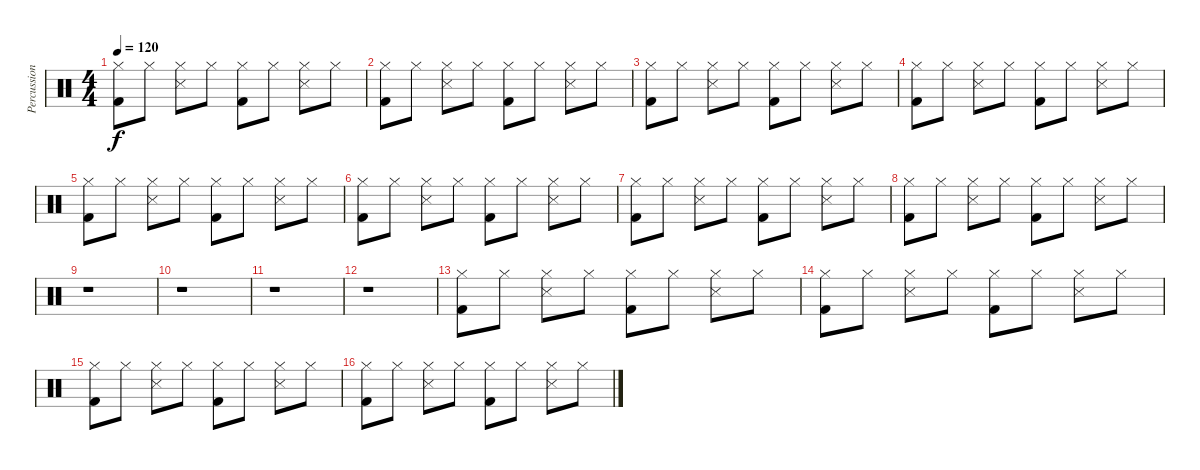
\track ("Percussions" "Percussion") {instrument percussion}
\staff {score}
\articulation defaults
\ts (4 4)
\tempo 120
\clef neutral
\ks c
("Kick (hit) 2" "Hi-Hat (closed)").8{dy f} "Hi-Hat (closed)".8 ("Snare (side stick) 3" "Hi-Hat (closed)").8 "Hi-Hat (closed)".8 ("Kick (hit) 2" "Hi-Hat (closed)").8 "Hi-Hat (closed)".8 ("Snare (side stick) 3" "Hi-Hat (closed)").8 "Hi-Hat (closed)".8 |
("Kick (hit) 2" "Hi-Hat (closed)").8 "Hi-Hat (closed)".8 ("Snare (side stick) 3" "Hi-Hat (closed)").8 "Hi-Hat (closed)".8 ("Kick (hit) 2" "Hi-Hat (closed)").8 "Hi-Hat (closed)".8 ("Snare (side stick) 3" "Hi-Hat (closed)").8 "Hi-Hat (closed)".8 |
("Kick (hit) 2" "Hi-Hat (closed)").8 "Hi-Hat (closed)".8 ("Snare (side stick) 3" "Hi-Hat (closed)").8 "Hi-Hat (closed)".8 ("Kick (hit) 2" "Hi-Hat (closed)").8 "Hi-Hat (closed)".8 ("Snare (side stick) 3" "Hi-Hat (closed)").8 "Hi-Hat (closed)".8 |
("Kick (hit) 2" "Hi-Hat (closed)").8 "Hi-Hat (closed)".8 ("Snare (side stick) 3" "Hi-Hat (closed)").8 "Hi-Hat (closed)".8 ("Kick (hit) 2" "Hi-Hat (closed)").8 "Hi-Hat (closed)".8 ("Snare (side stick) 3" "Hi-Hat (closed)").8 "Hi-Hat (closed)".8 |
("Kick (hit) 2" "Hi-Hat (closed)").8 "Hi-Hat (closed)".8 ("Snare (side stick) 3" "Hi-Hat (closed)").8 "Hi-Hat (closed)".8 ("Kick (hit) 2" "Hi-Hat (closed)").8 "Hi-Hat (closed)".8 ("Snare (side stick) 3" "Hi-Hat (closed)").8 "Hi-Hat (closed)".8 |
("Kick (hit) 2" "Hi-Hat (closed)").8 "Hi-Hat (closed)".8 ("Snare (side stick) 3" "Hi-Hat (closed)").8 "Hi-Hat (closed)".8 ("Kick (hit) 2" "Hi-Hat (closed)").8 "Hi-Hat (closed)".8 ("Snare (side stick) 3" "Hi-Hat (closed)").8 "Hi-Hat (closed)".8 |
("Kick (hit) 2" "Hi-Hat (closed)").8 "Hi-Hat (closed)".8 ("Snare (side stick) 3" "Hi-Hat (closed)").8 "Hi-Hat (closed)".8 ("Kick (hit) 2" "Hi-Hat (closed)").8 "Hi-Hat (closed)".8 ("Snare (side stick) 3" "Hi-Hat (closed)").8 "Hi-Hat (closed)".8 |
("Kick (hit) 2" "Hi-Hat (closed)").8 "Hi-Hat (closed)".8 ("Snare (side stick) 3" "Hi-Hat (closed)").8 "Hi-Hat (closed)".8 ("Kick (hit) 2" "Hi-Hat (closed)").8 "Hi-Hat (closed)".8 ("Snare (side stick) 3" "Hi-Hat (closed)").8 "Hi-Hat (closed)".8 |
r.1 |
r.1 |
r.1 |
r.1 |
("Kick (hit) 2" "Hi-Hat (closed)").8 "Hi-Hat (closed)".8 ("Snare (side stick) 3" "Hi-Hat (closed)").8 "Hi-Hat (closed)".8 ("Kick (hit) 2" "Hi-Hat (closed)").8 "Hi-Hat (closed)".8 ("Snare (side stick) 3" "Hi-Hat (closed)").8 "Hi-Hat (closed)".8 |
("Kick (hit) 2" "Hi-Hat (closed)").8 "Hi-Hat (closed)".8 ("Snare (side stick) 3" "Hi-Hat (closed)").8 "Hi-Hat (closed)".8 ("Kick (hit) 2" "Hi-Hat (closed)").8 "Hi-Hat (closed)".8 ("Snare (side stick) 3" "Hi-Hat (closed)").8 "Hi-Hat (closed)".8 |
("Kick (hit) 2" "Hi-Hat (closed)").8 "Hi-Hat (closed)".8 ("Snare (side stick) 3" "Hi-Hat (closed)").8 "Hi-Hat (closed)".8 ("Kick (hit) 2" "Hi-Hat (closed)").8 "Hi-Hat (closed)".8 ("Snare (side stick) 3" "Hi-Hat (closed)").8 "Hi-Hat (closed)".8 |
("Kick (hit) 2" "Hi-Hat (closed)").8 "Hi-Hat (closed)".8 ("Snare (side stick) 3" "Hi-Hat (closed)").8 "Hi-Hat (closed)".8 ("Kick (hit) 2" "Hi-Hat (closed)").8 "Hi-Hat (closed)".8 ("Snare (side stick) 3" "Hi-Hat (closed)").8 "Hi-Hat (closed)".8
